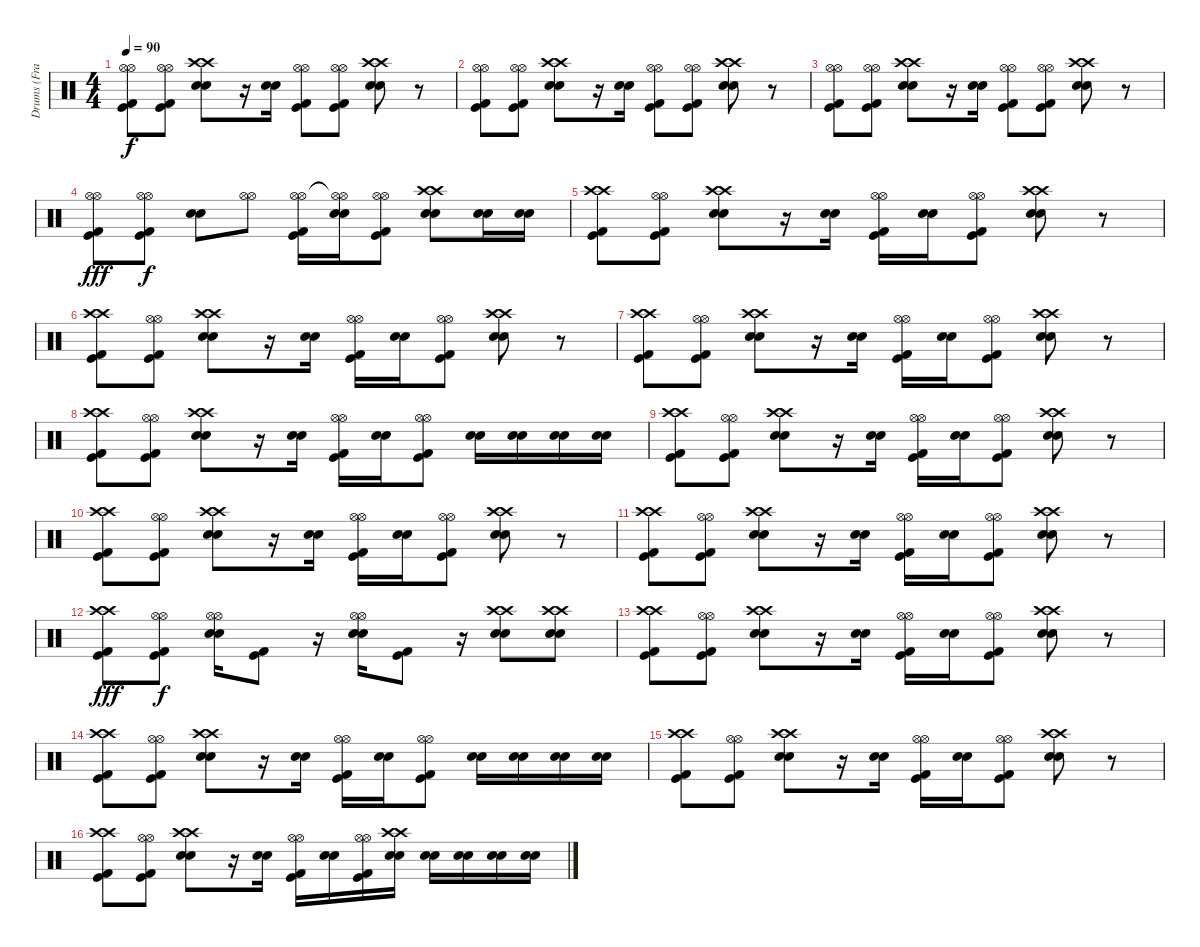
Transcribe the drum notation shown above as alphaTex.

\track ("Drums (Frank Ferrer)" "Drums (Fra") {instrument percussion}
\staff {score}
\articulation defaults
\ts (4 4)
\tempo 90
\clef neutral
\ks c
("Hi-Hat (open)" "Hi-Hat (open)" "Kick (hit)" "Kick (hit) 2").8{dy f} ("Hi-Hat (open)" "Hi-Hat (open)" "Kick (hit)" "Kick (hit) 2").8 ("Crash high (hit)" "Crash high (hit)" "Snare (hit) 2" "Snare (hit) 2").8 r.16 ("Snare (hit) 2" "Snare (hit) 2").16 ("Hi-Hat (open)" "Hi-Hat (open)" "Kick (hit)" "Kick (hit) 2").8 ("Hi-Hat (open)" "Hi-Hat (open)" "Kick (hit)" "Kick (hit) 2").8 ("Crash high (hit)" "Crash high (hit)" "Snare (hit) 2" "Snare (hit) 2").8 r.8 |
("Hi-Hat (open)" "Hi-Hat (open)" "Kick (hit)" "Kick (hit) 2").8 ("Hi-Hat (open)" "Hi-Hat (open)" "Kick (hit)" "Kick (hit) 2").8 ("Crash high (hit)" "Crash high (hit)" "Snare (hit) 2" "Snare (hit) 2").8 r.16 ("Snare (hit) 2" "Snare (hit) 2").16 ("Hi-Hat (open)" "Hi-Hat (open)" "Kick (hit)" "Kick (hit) 2").8 ("Hi-Hat (open)" "Hi-Hat (open)" "Kick (hit)" "Kick (hit) 2").8 ("Crash high (hit)" "Crash high (hit)" "Snare (hit) 2" "Snare (hit) 2").8 r.8 |
("Hi-Hat (open)" "Hi-Hat (open)" "Kick (hit)" "Kick (hit) 2").8 ("Hi-Hat (open)" "Hi-Hat (open)" "Kick (hit)" "Kick (hit) 2").8 ("Crash high (hit)" "Crash high (hit)" "Snare (hit) 2" "Snare (hit) 2").8 r.16 ("Snare (hit) 2" "Snare (hit) 2").16 ("Hi-Hat (open)" "Hi-Hat (open)" "Kick (hit)" "Kick (hit) 2").8 ("Hi-Hat (open)" "Hi-Hat (open)" "Kick (hit)" "Kick (hit) 2").8 ("Crash high (hit)" "Crash high (hit)" "Snare (hit) 2" "Snare (hit) 2").8 r.8 |
("Hi-Hat (open)" "Hi-Hat (open)" "Kick (hit)" "Kick (hit) 2").8{dy fff} ("Hi-Hat (open)" "Hi-Hat (open)" "Kick (hit)" "Kick (hit) 2").8{dy f} ("Snare (hit) 2" "Snare (hit) 2").8 ("Hi-Hat (open)" "Hi-Hat (open)").8 ("Hi-Hat (open)" "Hi-Hat (open)" "Kick (hit)" "Kick (hit) 2").16 ("Hi-Hat (open)"{t} "Hi-Hat (open)"{t} "Snare (hit) 2" "Snare (hit) 2").16 ("Hi-Hat (open)" "Hi-Hat (open)" "Kick (hit)" "Kick (hit) 2").8 ("Crash high (hit)" "Crash high (hit)" "Snare (hit) 2" "Snare (hit) 2").8 ("Snare (hit) 2" "Snare (hit) 2").16 ("Snare (hit) 2" "Snare (hit) 2").16 |
("Crash high (hit)" "Crash high (hit)" "Kick (hit)" "Kick (hit) 2").8 ("Hi-Hat (open)" "Hi-Hat (open)" "Kick (hit)" "Kick (hit) 2").8 ("Crash high (hit)" "Crash high (hit)" "Snare (hit) 2" "Snare (hit) 2").8 r.16 ("Snare (hit) 2" "Snare (hit) 2").16 ("Hi-Hat (open)" "Hi-Hat (open)" "Kick (hit)" "Kick (hit) 2").16 ("Snare (hit) 2" "Snare (hit) 2").16 ("Hi-Hat (open)" "Hi-Hat (open)" "Kick (hit)" "Kick (hit) 2").8 ("Crash high (hit)" "Crash high (hit)" "Snare (hit) 2" "Snare (hit) 2").8 r.8 |
("Crash high (hit)" "Crash high (hit)" "Kick (hit)" "Kick (hit) 2").8 ("Hi-Hat (open)" "Hi-Hat (open)" "Kick (hit)" "Kick (hit) 2").8 ("Crash high (hit)" "Crash high (hit)" "Snare (hit) 2" "Snare (hit) 2").8 r.16 ("Snare (hit) 2" "Snare (hit) 2").16 ("Hi-Hat (open)" "Hi-Hat (open)" "Kick (hit)" "Kick (hit) 2").16 ("Snare (hit) 2" "Snare (hit) 2").16 ("Hi-Hat (open)" "Hi-Hat (open)" "Kick (hit)" "Kick (hit) 2").8 ("Crash high (hit)" "Crash high (hit)" "Snare (hit) 2" "Snare (hit) 2").8 r.8 |
("Crash high (hit)" "Crash high (hit)" "Kick (hit)" "Kick (hit) 2").8 ("Hi-Hat (open)" "Hi-Hat (open)" "Kick (hit)" "Kick (hit) 2").8 ("Crash high (hit)" "Crash high (hit)" "Snare (hit) 2" "Snare (hit) 2").8 r.16 ("Snare (hit) 2" "Snare (hit) 2").16 ("Hi-Hat (open)" "Hi-Hat (open)" "Kick (hit)" "Kick (hit) 2").16 ("Snare (hit) 2" "Snare (hit) 2").16 ("Hi-Hat (open)" "Hi-Hat (open)" "Kick (hit)" "Kick (hit) 2").8 ("Crash high (hit)" "Crash high (hit)" "Snare (hit) 2" "Snare (hit) 2").8 r.8 |
("Crash high (hit)" "Crash high (hit)" "Kick (hit)" "Kick (hit) 2").8 ("Hi-Hat (open)" "Hi-Hat (open)" "Kick (hit)" "Kick (hit) 2").8 ("Crash high (hit)" "Crash high (hit)" "Snare (hit) 2" "Snare (hit) 2").8 r.16 ("Snare (hit) 2" "Snare (hit) 2").16 ("Hi-Hat (open)" "Hi-Hat (open)" "Kick (hit)" "Kick (hit) 2").16 ("Snare (hit) 2" "Snare (hit) 2").16 ("Hi-Hat (open)" "Hi-Hat (open)" "Kick (hit)" "Kick (hit) 2").8 ("Snare (hit) 2" "Snare (hit) 2").16 ("Snare (hit) 2" "Snare (hit) 2").16 ("Snare (hit) 2" "Snare (hit) 2").16 ("Snare (hit) 2" "Snare (hit) 2").16 |
("Crash high (hit)" "Crash high (hit)" "Kick (hit)" "Kick (hit) 2").8 ("Hi-Hat (open)" "Hi-Hat (open)" "Kick (hit)" "Kick (hit) 2").8 ("Crash high (hit)" "Crash high (hit)" "Snare (hit) 2" "Snare (hit) 2").8 r.16 ("Snare (hit) 2" "Snare (hit) 2").16 ("Hi-Hat (open)" "Hi-Hat (open)" "Kick (hit)" "Kick (hit) 2").16 ("Snare (hit) 2" "Snare (hit) 2").16 ("Hi-Hat (open)" "Hi-Hat (open)" "Kick (hit)" "Kick (hit) 2").8 ("Crash high (hit)" "Crash high (hit)" "Snare (hit) 2" "Snare (hit) 2").8 r.8 |
("Crash high (hit)" "Crash high (hit)" "Kick (hit)" "Kick (hit) 2").8 ("Hi-Hat (open)" "Hi-Hat (open)" "Kick (hit)" "Kick (hit) 2").8 ("Crash high (hit)" "Crash high (hit)" "Snare (hit) 2" "Snare (hit) 2").8 r.16 ("Snare (hit) 2" "Snare (hit) 2").16 ("Hi-Hat (open)" "Hi-Hat (open)" "Kick (hit)" "Kick (hit) 2").16 ("Snare (hit) 2" "Snare (hit) 2").16 ("Hi-Hat (open)" "Hi-Hat (open)" "Kick (hit)" "Kick (hit) 2").8 ("Crash high (hit)" "Crash high (hit)" "Snare (hit) 2" "Snare (hit) 2").8 r.8 |
("Crash high (hit)" "Crash high (hit)" "Kick (hit)" "Kick (hit) 2").8 ("Hi-Hat (open)" "Hi-Hat (open)" "Kick (hit)" "Kick (hit) 2").8 ("Crash high (hit)" "Crash high (hit)" "Snare (hit) 2" "Snare (hit) 2").8 r.16 ("Snare (hit) 2" "Snare (hit) 2").16 ("Hi-Hat (open)" "Hi-Hat (open)" "Kick (hit)" "Kick (hit) 2").16 ("Snare (hit) 2" "Snare (hit) 2").16 ("Hi-Hat (open)" "Hi-Hat (open)" "Kick (hit)" "Kick (hit) 2").8 ("Crash high (hit)" "Crash high (hit)" "Snare (hit) 2" "Snare (hit) 2").8 r.8 |
("Crash high (hit)" "Crash high (hit)" "Kick (hit)" "Kick (hit) 2").8{dy fff} ("Hi-Hat (open)" "Hi-Hat (open)" "Kick (hit)" "Kick (hit) 2").8{dy f} ("Hi-Hat (open)" "Hi-Hat (open)" "Snare (hit) 2" "Snare (hit) 2").16 ("Kick (hit)" "Kick (hit) 2").8 r.16 ("Hi-Hat (open)" "Hi-Hat (open)" "Snare (hit) 2" "Snare (hit) 2").16 ("Kick (hit)" "Kick (hit) 2").8 r.16 ("Crash high (hit)" "Crash high (hit)" "Snare (hit) 2" "Snare (hit) 2").8 ("Crash high (hit)" "Crash high (hit)" "Snare (hit) 2" "Snare (hit) 2").8 |
("Crash high (hit)" "Crash high (hit)" "Kick (hit)" "Kick (hit) 2").8 ("Hi-Hat (open)" "Hi-Hat (open)" "Kick (hit)" "Kick (hit) 2").8 ("Crash high (hit)" "Crash high (hit)" "Snare (hit) 2" "Snare (hit) 2").8 r.16 ("Snare (hit) 2" "Snare (hit) 2").16 ("Hi-Hat (open)" "Hi-Hat (open)" "Kick (hit)" "Kick (hit) 2").16 ("Snare (hit) 2" "Snare (hit) 2").16 ("Hi-Hat (open)" "Hi-Hat (open)" "Kick (hit)" "Kick (hit) 2").8 ("Crash high (hit)" "Crash high (hit)" "Snare (hit) 2" "Snare (hit) 2").8 r.8 |
("Crash high (hit)" "Crash high (hit)" "Kick (hit)" "Kick (hit) 2").8 ("Hi-Hat (open)" "Hi-Hat (open)" "Kick (hit)" "Kick (hit) 2").8 ("Crash high (hit)" "Crash high (hit)" "Snare (hit) 2" "Snare (hit) 2").8 r.16 ("Snare (hit) 2" "Snare (hit) 2").16 ("Hi-Hat (open)" "Hi-Hat (open)" "Kick (hit)" "Kick (hit) 2").16 ("Snare (hit) 2" "Snare (hit) 2").16 ("Hi-Hat (open)" "Hi-Hat (open)" "Kick (hit)" "Kick (hit) 2").8 ("Snare (hit) 2" "Snare (hit) 2").16 ("Snare (hit) 2" "Snare (hit) 2").16 ("Snare (hit) 2" "Snare (hit) 2").16 ("Snare (hit) 2" "Snare (hit) 2").16 |
("Crash high (hit)" "Crash high (hit)" "Kick (hit)" "Kick (hit) 2").8 ("Hi-Hat (open)" "Hi-Hat (open)" "Kick (hit)" "Kick (hit) 2").8 ("Crash high (hit)" "Crash high (hit)" "Snare (hit) 2" "Snare (hit) 2").8 r.16 ("Snare (hit) 2" "Snare (hit) 2").16 ("Hi-Hat (open)" "Hi-Hat (open)" "Kick (hit)" "Kick (hit) 2").16 ("Snare (hit) 2" "Snare (hit) 2").16 ("Hi-Hat (open)" "Hi-Hat (open)" "Kick (hit)" "Kick (hit) 2").8 ("Crash high (hit)" "Crash high (hit)" "Snare (hit) 2" "Snare (hit) 2").8 r.8 |
("Crash high (hit)" "Crash high (hit)" "Kick (hit)" "Kick (hit) 2").8 ("Hi-Hat (open)" "Hi-Hat (open)" "Kick (hit)" "Kick (hit) 2").8 ("Crash high (hit)" "Crash high (hit)" "Snare (hit) 2" "Snare (hit) 2").8 r.16 ("Snare (hit) 2" "Snare (hit) 2").16 ("Hi-Hat (open)" "Hi-Hat (open)" "Kick (hit)" "Kick (hit) 2").16 ("Snare (hit) 2" "Snare (hit) 2").16 ("Hi-Hat (open)" "Hi-Hat (open)" "Kick (hit)" "Kick (hit) 2").16 ("Crash high (hit)" "Crash high (hit)" "Snare (hit) 2" "Snare (hit) 2").16 ("Snare (hit) 2" "Snare (hit) 2").16 ("Snare (hit) 2" "Snare (hit) 2").16 ("Snare (hit) 2" "Snare (hit) 2").16 ("Snare (hit) 2" "Snare (hit) 2").16
